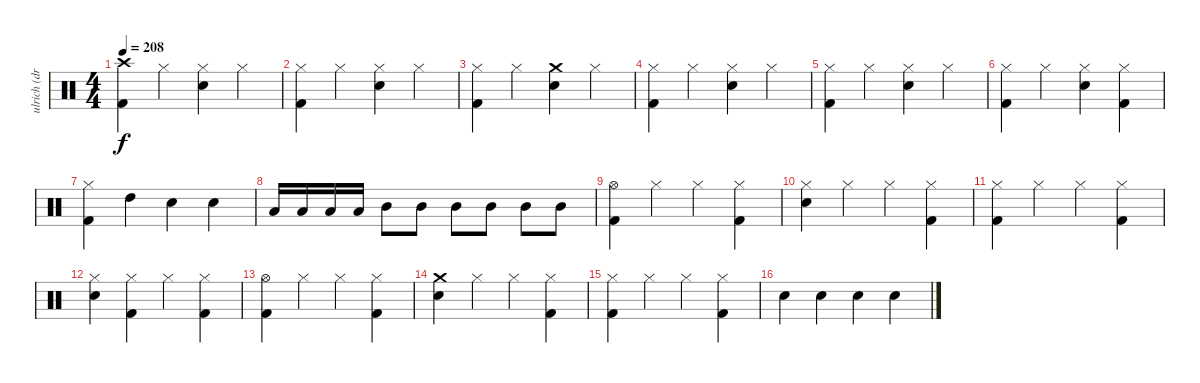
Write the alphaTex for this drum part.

\track ("ulrich (drums)" "ulrich (dr") {instrument percussion}
\staff {score}
\articulation defaults
\ts (4 4)
\tempo 208
\clef neutral
\ks c
("Crash high (hit)" "Kick (hit) 2").4{dy f} "Hi-Hat (closed)".4 ("Hi-Hat (closed)" "Snare (hit) 2").4 "Hi-Hat (closed)".4 |
("Hi-Hat (closed)" "Kick (hit) 2").4 "Hi-Hat (closed)".4 ("Hi-Hat (closed)" "Snare (hit) 2").4 "Hi-Hat (closed)".4 |
("Hi-Hat (closed)" "Kick (hit) 2").4 "Hi-Hat (closed)".4 ("Crash medium (hit)" "Snare (hit) 2").4 "Hi-Hat (closed)".4 |
("Hi-Hat (closed)" "Kick (hit) 2").4 "Hi-Hat (closed)".4 ("Hi-Hat (closed)" "Snare (hit) 2").4 "Hi-Hat (closed)".4 |
("Hi-Hat (closed)" "Kick (hit) 2").4 "Hi-Hat (closed)".4 ("Hi-Hat (closed)" "Snare (hit) 2").4 "Hi-Hat (closed)".4 |
("Hi-Hat (closed)" "Kick (hit) 2").4 "Hi-Hat (closed)".4 ("Hi-Hat (closed)" "Snare (hit) 2").4 ("Hi-Hat (closed)" "Kick (hit) 2").4 |
("Hi-Hat (closed)" "Kick (hit) 2").4 "High Tom (hit)".4 "Snare (hit) 2".4 "Snare (hit) 2".4 |
"Low Tom (hit)".16 "Low Tom (hit)".16 "Low Tom (hit)".16 "Low Tom (hit)".16 "Mid Tom (hit)".8 "Mid Tom (hit)".8 "Mid Tom (hit)".8 "Mid Tom (hit)".8 "Mid Tom (hit)".8 "Mid Tom (hit)".8 |
("Hi-Hat (open)" "Kick (hit) 2").4 "Hi-Hat (closed)".4 "Hi-Hat (closed)".4 ("Hi-Hat (closed)" "Kick (hit) 2").4 |
("Hi-Hat (closed)" "Snare (hit) 2").4 "Hi-Hat (closed)".4 "Hi-Hat (closed)".4 ("Hi-Hat (closed)" "Kick (hit) 2").4 |
("Hi-Hat (closed)" "Kick (hit) 2").4 "Hi-Hat (closed)".4 "Hi-Hat (closed)".4 ("Hi-Hat (closed)" "Kick (hit) 2").4 |
("Hi-Hat (closed)" "Snare (hit) 2").4 ("Hi-Hat (closed)" "Kick (hit) 2").4 "Hi-Hat (closed)".4 ("Hi-Hat (closed)" "Kick (hit) 2").4 |
("Hi-Hat (open)" "Kick (hit) 2").4 "Hi-Hat (closed)".4 "Hi-Hat (closed)".4 ("Hi-Hat (closed)" "Kick (hit) 2").4 |
("Crash medium (hit)" "Snare (hit) 2").4 "Hi-Hat (closed)".4 "Hi-Hat (closed)".4 ("Hi-Hat (closed)" "Kick (hit) 2").4 |
("Hi-Hat (closed)" "Kick (hit) 2").4 "Hi-Hat (closed)".4 "Hi-Hat (closed)".4 ("Hi-Hat (closed)" "Kick (hit) 2").4 |
"Snare (hit) 2".4 "Snare (hit) 2".4 "Snare (hit) 2".4 "Snare (hit) 2".4
